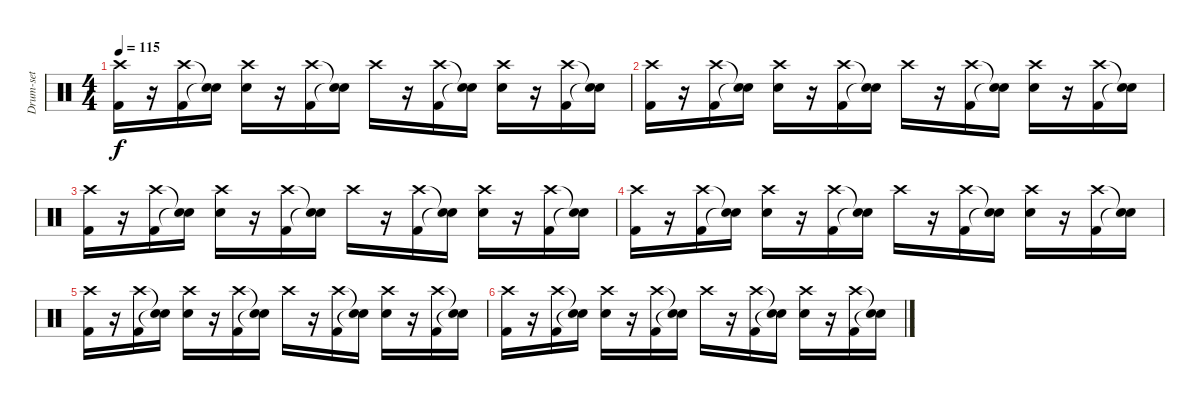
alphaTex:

\track ("Drum-set" "Drum-set") {instrument percussion}
\staff {score}
\articulation defaults
\ts (4 4)
\tempo 115
\clef neutral
\ks c
("Crash high (hit)" "Kick (hit) 2").16{dy f} r.16 ("Crash high (hit)" "Kick (hit) 2").16 ("Snare (hit)"{t} "Snare (hit)"{t}).16 ("Crash high (hit)" "Electric Snare (hit)").16 r.16 ("Crash high (hit)" "Kick (hit) 2").16 ("Snare (hit)"{t} "Snare (hit)"{t}).16 "Crash high (hit)".16 r.16 ("Crash high (hit)" "Kick (hit) 2").16 ("Snare (hit)"{t} "Snare (hit)"{t}).16 ("Crash high (hit)" "Electric Snare (hit)").16 r.16 ("Crash high (hit)" "Kick (hit) 2").16 ("Snare (hit)"{t} "Snare (hit)"{t}).16 |
("Crash high (hit)" "Kick (hit) 2").16 r.16 ("Crash high (hit)" "Kick (hit) 2").16 ("Snare (hit)"{t} "Snare (hit)"{t}).16 ("Crash high (hit)" "Electric Snare (hit)").16 r.16 ("Crash high (hit)" "Kick (hit) 2").16 ("Snare (hit)"{t} "Snare (hit)"{t}).16 "Crash high (hit)".16 r.16 ("Crash high (hit)" "Kick (hit) 2").16 ("Snare (hit)"{t} "Snare (hit)"{t}).16 ("Crash high (hit)" "Electric Snare (hit)").16 r.16 ("Crash high (hit)" "Kick (hit) 2").16 ("Snare (hit)"{t} "Snare (hit)"{t}).16 |
("Crash high (hit)" "Kick (hit) 2").16 r.16 ("Crash high (hit)" "Kick (hit) 2").16 ("Snare (hit)"{t} "Snare (hit)"{t}).16 ("Crash high (hit)" "Electric Snare (hit)").16 r.16 ("Crash high (hit)" "Kick (hit) 2").16 ("Snare (hit)"{t} "Snare (hit)"{t}).16 "Crash high (hit)".16 r.16 ("Crash high (hit)" "Kick (hit) 2").16 ("Snare (hit)"{t} "Snare (hit)"{t}).16 ("Crash high (hit)" "Electric Snare (hit)").16 r.16 ("Crash high (hit)" "Kick (hit) 2").16 ("Snare (hit)"{t} "Snare (hit)"{t}).16 |
("Crash high (hit)" "Kick (hit) 2").16 r.16 ("Crash high (hit)" "Kick (hit) 2").16 ("Snare (hit)"{t} "Snare (hit)"{t}).16 ("Crash high (hit)" "Electric Snare (hit)").16 r.16 ("Crash high (hit)" "Kick (hit) 2").16 ("Snare (hit)"{t} "Snare (hit)"{t}).16 "Crash high (hit)".16 r.16 ("Crash high (hit)" "Kick (hit) 2").16 ("Snare (hit)"{t} "Snare (hit)"{t}).16 ("Crash high (hit)" "Electric Snare (hit)").16 r.16 ("Crash high (hit)" "Kick (hit) 2").16 ("Snare (hit)"{t} "Snare (hit)"{t}).16 |
("Crash high (hit)" "Kick (hit) 2").16 r.16 ("Crash high (hit)" "Kick (hit) 2").16 ("Snare (hit)"{t} "Snare (hit)"{t}).16 ("Crash high (hit)" "Electric Snare (hit)").16 r.16 ("Crash high (hit)" "Kick (hit) 2").16 ("Snare (hit)"{t} "Snare (hit)"{t}).16 "Crash high (hit)".16 r.16 ("Crash high (hit)" "Kick (hit) 2").16 ("Snare (hit)"{t} "Snare (hit)"{t}).16 ("Crash high (hit)" "Electric Snare (hit)").16 r.16 ("Crash high (hit)" "Kick (hit) 2").16 ("Snare (hit)"{t} "Snare (hit)"{t}).16 |
("Crash high (hit)" "Kick (hit) 2").16 r.16 ("Crash high (hit)" "Kick (hit) 2").16 ("Snare (hit)"{t} "Snare (hit)"{t}).16 ("Crash high (hit)" "Electric Snare (hit)").16 r.16 ("Crash high (hit)" "Kick (hit) 2").16 ("Snare (hit)"{t} "Snare (hit)"{t}).16 "Crash high (hit)".16 r.16 ("Crash high (hit)" "Kick (hit) 2").16 ("Snare (hit)"{t} "Snare (hit)"{t}).16 ("Crash high (hit)" "Electric Snare (hit)").16 r.16 ("Crash high (hit)" "Kick (hit) 2").16 ("Snare (hit)"{t} "Snare (hit)"{t}).16
